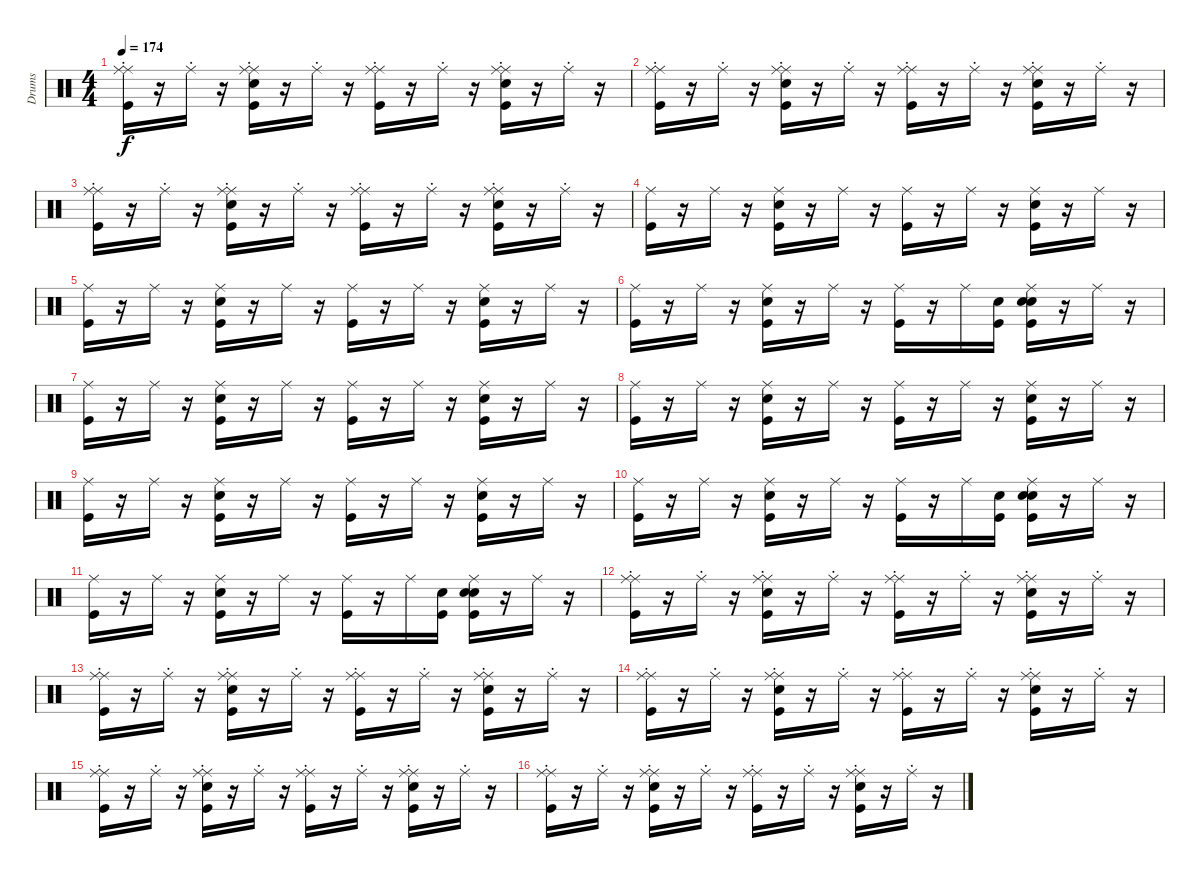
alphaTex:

\track ("Drums" "Drums") {instrument percussion}
\staff {score}
\articulation defaults
\ts (4 4)
\tempo 174
\clef neutral
\ks c
("Ride (middle)" "Kick (hit)" "Ride (choke)").16{dy f} r.16 "Ride (choke)".16 r.16 ("Ride (middle)" "Kick (hit)" "Snare (hit) 2" "Ride (choke)").16 r.16 "Ride (choke)".16 r.16 ("Ride (middle)" "Kick (hit)" "Ride (choke)").16 r.16 "Ride (choke)".16 r.16 ("Kick (hit)" "Snare (hit) 2" "Ride (choke)" "Ride (middle)").16 r.16 "Ride (choke)".16 r.16 |
("Ride (middle)" "Kick (hit)" "Ride (choke)").16 r.16 "Ride (choke)".16 r.16 ("Ride (middle)" "Kick (hit)" "Snare (hit) 2" "Ride (choke)").16 r.16 "Ride (choke)".16 r.16 ("Ride (middle)" "Kick (hit)" "Ride (choke)").16 r.16 "Ride (choke)".16 r.16 ("Ride (middle)" "Kick (hit)" "Snare (hit) 2" "Ride (choke)").16 r.16 "Ride (choke)".16 r.16 |
("Ride (middle)" "Kick (hit)" "Ride (choke)").16 r.16 "Ride (choke)".16 r.16 ("Ride (middle)" "Kick (hit)" "Snare (hit) 2" "Ride (choke)").16 r.16 "Ride (choke)".16 r.16 ("Ride (middle)" "Kick (hit)" "Ride (choke)").16 r.16 "Ride (choke)".16 r.16 ("Kick (hit)" "Snare (hit) 2" "Ride (choke)" "Ride (middle)").16 r.16 "Ride (choke)".16 r.16 |
("Kick (hit)" "Ride (middle)").16 r.16 "Ride (middle)".16 r.16 ("Snare (hit) 2" "Kick (hit)" "Ride (middle)").16 r.16 "Ride (middle)".16 r.16 ("Kick (hit)" "Ride (middle)").16 r.16 "Ride (middle)".16 r.16 ("Snare (hit) 2" "Kick (hit)" "Ride (middle)").16 r.16 "Ride (middle)".16 r.16 |
("Kick (hit)" "Ride (middle)").16 r.16 "Ride (middle)".16 r.16 ("Kick (hit)" "Snare (hit) 2" "Ride (middle)").16 r.16 "Ride (middle)".16 r.16 ("Kick (hit)" "Ride (middle)").16 r.16 "Ride (middle)".16 r.16 ("Kick (hit)" "Snare (hit) 2" "Ride (middle)").16 r.16 "Ride (middle)".16 r.16 |
("Kick (hit)" "Ride (middle)").16 r.16 "Ride (middle)".16 r.16 ("Kick (hit)" "Snare (hit) 2" "Ride (middle)").16 r.16 "Ride (middle)".16 r.16 ("Kick (hit)" "Ride (middle)").16 r.16 "Ride (middle)".16 ("Snare (hit)" "Kick (hit)").16 ("Snare (hit)" "Kick (hit)" "Snare (hit) 2" "Ride (middle)").16 r.16 "Ride (middle)".16 r.16 |
("Kick (hit)" "Ride (middle)").16 r.16 "Ride (middle)".16 r.16 ("Snare (hit) 2" "Kick (hit)" "Ride (middle)").16 r.16 "Ride (middle)".16 r.16 ("Kick (hit)" "Ride (middle)").16 r.16 "Ride (middle)".16 r.16 ("Snare (hit) 2" "Kick (hit)" "Ride (middle)").16 r.16 "Ride (middle)".16 r.16 |
("Kick (hit)" "Ride (middle)").16 r.16 "Ride (middle)".16 r.16 ("Snare (hit) 2" "Kick (hit)" "Ride (middle)").16 r.16 "Ride (middle)".16 r.16 ("Kick (hit)" "Ride (middle)").16 r.16 "Ride (middle)".16 r.16 ("Snare (hit) 2" "Kick (hit)" "Ride (middle)").16 r.16 "Ride (middle)".16 r.16 |
("Kick (hit)" "Ride (middle)").16 r.16 "Ride (middle)".16 r.16 ("Kick (hit)" "Snare (hit) 2" "Ride (middle)").16 r.16 "Ride (middle)".16 r.16 ("Kick (hit)" "Ride (middle)").16 r.16 "Ride (middle)".16 r.16 ("Kick (hit)" "Snare (hit) 2" "Ride (middle)").16 r.16 "Ride (middle)".16 r.16 |
("Kick (hit)" "Ride (middle)").16 r.16 "Ride (middle)".16 r.16 ("Kick (hit)" "Snare (hit) 2" "Ride (middle)").16 r.16 "Ride (middle)".16 r.16 ("Kick (hit)" "Ride (middle)").16 r.16 "Ride (middle)".16 ("Snare (hit)" "Kick (hit)").16 ("Snare (hit)" "Kick (hit)" "Snare (hit) 2" "Ride (middle)").16 r.16 "Ride (middle)".16 r.16 |
("Kick (hit)" "Ride (middle)").16 r.16 "Ride (middle)".16 r.16 ("Kick (hit)" "Snare (hit) 2" "Ride (middle)").16 r.16 "Ride (middle)".16 r.16 ("Kick (hit)" "Ride (middle)").16 r.16 "Ride (middle)".16 ("Snare (hit)" "Kick (hit)").16 ("Snare (hit)" "Kick (hit)" "Snare (hit) 2" "Ride (middle)").16 r.16 "Ride (middle)".16 r.16 |
("Ride (middle)" "Kick (hit)" "Ride (choke)").16 r.16 "Ride (choke)".16 r.16 ("Ride (middle)" "Kick (hit)" "Snare (hit) 2" "Ride (choke)").16 r.16 "Ride (choke)".16 r.16 ("Ride (middle)" "Kick (hit)" "Ride (choke)").16 r.16 "Ride (choke)".16 r.16 ("Ride (middle)" "Kick (hit)" "Snare (hit) 2" "Ride (choke)").16 r.16 "Ride (choke)".16 r.16 |
("Ride (middle)" "Kick (hit)" "Ride (choke)").16 r.16 "Ride (choke)".16 r.16 ("Ride (middle)" "Kick (hit)" "Snare (hit) 2" "Ride (choke)").16 r.16 "Ride (choke)".16 r.16 ("Ride (middle)" "Kick (hit)" "Ride (choke)").16 r.16 "Ride (choke)".16 r.16 ("Kick (hit)" "Snare (hit) 2" "Ride (choke)" "Ride (middle)").16 r.16 "Ride (choke)".16 r.16 |
("Ride (middle)" "Kick (hit)" "Ride (choke)").16 r.16 "Ride (choke)".16 r.16 ("Ride (middle)" "Kick (hit)" "Snare (hit) 2" "Ride (choke)").16 r.16 "Ride (choke)".16 r.16 ("Ride (middle)" "Kick (hit)" "Ride (choke)").16 r.16 "Ride (choke)".16 r.16 ("Ride (middle)" "Kick (hit)" "Snare (hit) 2" "Ride (choke)").16 r.16 "Ride (choke)".16 r.16 |
("Ride (middle)" "Kick (hit)" "Ride (choke)").16 r.16 "Ride (choke)".16 r.16 ("Ride (middle)" "Kick (hit)" "Snare (hit) 2" "Ride (choke)").16 r.16 "Ride (choke)".16 r.16 ("Ride (middle)" "Kick (hit)" "Ride (choke)").16 r.16 "Ride (choke)".16 r.16 ("Kick (hit)" "Snare (hit) 2" "Ride (choke)" "Ride (middle)").16 r.16 "Ride (choke)".16 r.16 |
("Ride (middle)" "Kick (hit)" "Ride (choke)").16 r.16 "Ride (choke)".16 r.16 ("Ride (middle)" "Kick (hit)" "Snare (hit) 2" "Ride (choke)").16 r.16 "Ride (choke)".16 r.16 ("Ride (middle)" "Kick (hit)" "Ride (choke)").16 r.16 "Ride (choke)".16 r.16 ("Ride (middle)" "Kick (hit)" "Snare (hit) 2" "Ride (choke)").16 r.16 "Ride (choke)".16 r.16
